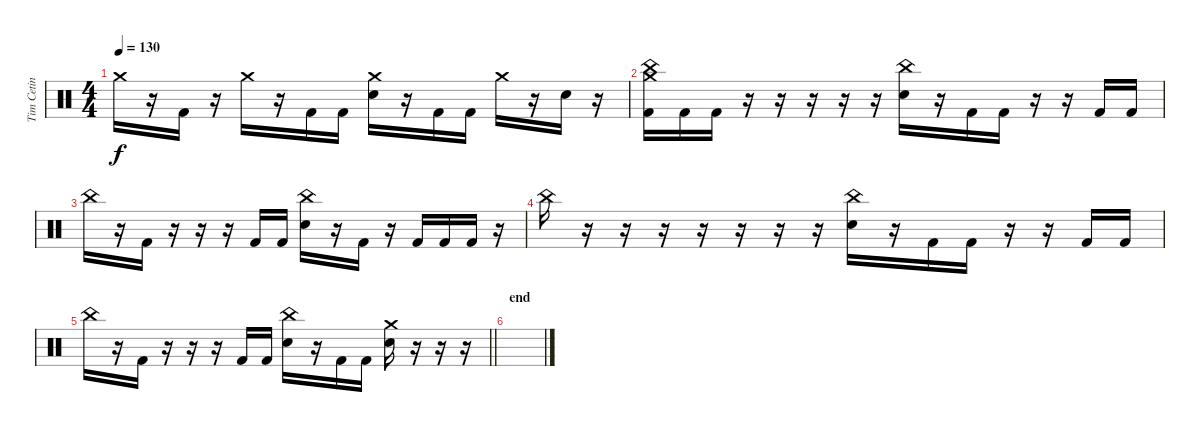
\track ("Tim Cetin" "Tim Cetin") {instrument percussion}
\staff {score}
\articulation defaults
\ts (4 4)
\tempo 130
\clef neutral
\ks c "Crash medium (hit)".16{dy f}
r.16 "Kick (hit) 2".16 r.16 "Crash medium (hit)".16 r.16 "Kick (hit) 2".16 "Kick (hit) 2".16 ("Crash medium (hit)" "Snare (hit) 2").16 r.16 "Kick (hit) 2".16 "Kick (hit) 2".16 "Crash medium (hit)".16 r.16 "Snare (hit) 2".16 r.16 |
("China (hit)" "Crash medium (hit)" "Kick (hit) 2").16 "Kick (hit) 2".16 "Kick (hit) 2".16 r.16 r.16 r.16 r.16 r.16 ("China (hit)" "Snare (hit) 2").16 r.16 "Kick (hit) 2".16 "Kick (hit) 2".16 r.16 r.16 "Kick (hit) 2".16 "Kick (hit) 2".16 |
"China (hit)".16 r.16 "Kick (hit) 2".16 r.16 r.16 r.16 "Kick (hit) 2".16 "Kick (hit) 2".16 ("China (hit)" "Snare (hit) 2").16 r.16 "Kick (hit) 2".16 r.16 "Kick (hit) 2".16 "Kick (hit) 2".16 "Kick (hit) 2".16 r.16 |
"China (hit)".16 r.16 r.16 r.16 r.16 r.16 r.16 r.16 ("China (hit)" "Snare (hit) 2").16 r.16 "Kick (hit) 2".16 "Kick (hit) 2".16 r.16 r.16 "Kick (hit) 2".16 "Kick (hit) 2".16 |
\barLineRight lightlight "China (hit)".16
r.16 "Kick (hit) 2".16 r.16 r.16 r.16 "Kick (hit) 2".16 "Kick (hit) 2".16 ("China (hit)" "Snare (hit) 2").16 r.16 "Kick (hit) 2".16 "Kick (hit) 2".16 ("Crash medium (hit)" "Snare (hit) 2").16 r.16 r.16 r.16 |
\section ("" "end")
